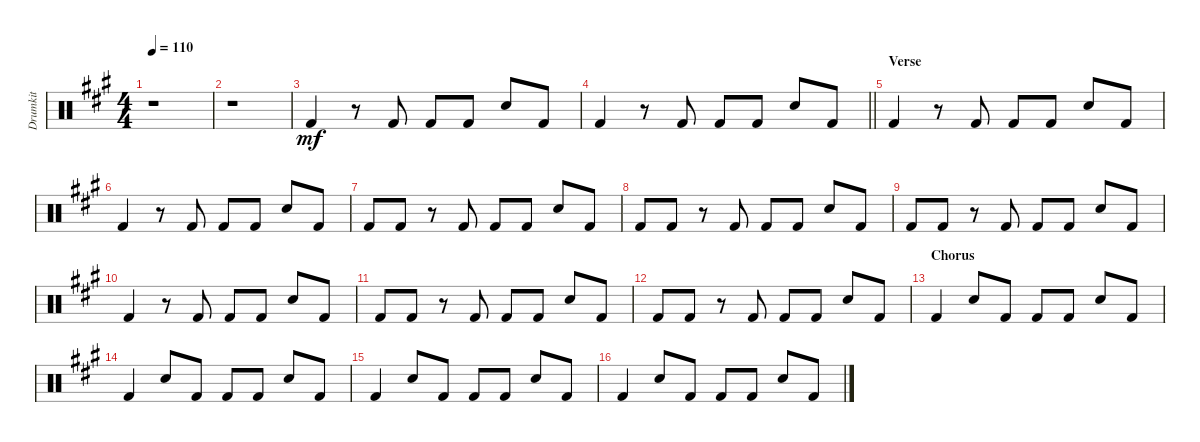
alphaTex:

\track ("Drumkit" "Drumkit") {instrument percussion}
\staff {score}
\articulation defaults
\ts (4 4)
\tempo 110
\clef neutral
\ks a
r.1{dy mf} |
r.1 |
"Kick (hit) 2".4 r.8 "Kick (hit) 2".8 "Kick (hit) 2".8 "Kick (hit) 2".8 "Snare (hit) 2".8 "Kick (hit) 2".8 |
\barLineRight lightlight "Kick (hit) 2".4
r.8 "Kick (hit) 2".8 "Kick (hit) 2".8 "Kick (hit) 2".8 "Snare (hit) 2".8 "Kick (hit) 2".8 |
\section ("" "Verse")
"Kick (hit) 2".4 r.8 "Kick (hit) 2".8 "Kick (hit) 2".8 "Kick (hit) 2".8 "Snare (hit) 2".8 "Kick (hit) 2".8 |
"Kick (hit) 2".4 r.8 "Kick (hit) 2".8 "Kick (hit) 2".8 "Kick (hit) 2".8 "Snare (hit) 2".8 "Kick (hit) 2".8 |
"Kick (hit) 2".8 "Kick (hit) 2".8 r.8 "Kick (hit) 2".8 "Kick (hit) 2".8 "Kick (hit) 2".8 "Snare (hit) 2".8 "Kick (hit) 2".8 |
"Kick (hit) 2".8 "Kick (hit) 2".8 r.8 "Kick (hit) 2".8 "Kick (hit) 2".8 "Kick (hit) 2".8 "Snare (hit) 2".8 "Kick (hit) 2".8 |
"Kick (hit) 2".8 "Kick (hit) 2".8 r.8 "Kick (hit) 2".8 "Kick (hit) 2".8 "Kick (hit) 2".8 "Snare (hit) 2".8 "Kick (hit) 2".8 |
"Kick (hit) 2".4 r.8 "Kick (hit) 2".8 "Kick (hit) 2".8 "Kick (hit) 2".8 "Snare (hit) 2".8 "Kick (hit) 2".8 |
"Kick (hit) 2".8 "Kick (hit) 2".8 r.8 "Kick (hit) 2".8 "Kick (hit) 2".8 "Kick (hit) 2".8 "Snare (hit) 2".8 "Kick (hit) 2".8 |
"Kick (hit) 2".8 "Kick (hit) 2".8 r.8 "Kick (hit) 2".8 "Kick (hit) 2".8 "Kick (hit) 2".8 "Snare (hit) 2".8 "Kick (hit) 2".8 |
\section ("" "Chorus")
"Kick (hit) 2".4 "Snare (hit) 2".8 "Kick (hit) 2".8 "Kick (hit) 2".8 "Kick (hit) 2".8 "Snare (hit) 2".8 "Kick (hit) 2".8 |
"Kick (hit) 2".4 "Snare (hit) 2".8 "Kick (hit) 2".8 "Kick (hit) 2".8 "Kick (hit) 2".8 "Snare (hit) 2".8 "Kick (hit) 2".8 |
"Kick (hit) 2".4 "Snare (hit) 2".8 "Kick (hit) 2".8 "Kick (hit) 2".8 "Kick (hit) 2".8 "Snare (hit) 2".8 "Kick (hit) 2".8 |
"Kick (hit) 2".4 "Snare (hit) 2".8 "Kick (hit) 2".8 "Kick (hit) 2".8 "Kick (hit) 2".8 "Snare (hit) 2".8 "Kick (hit) 2".8
